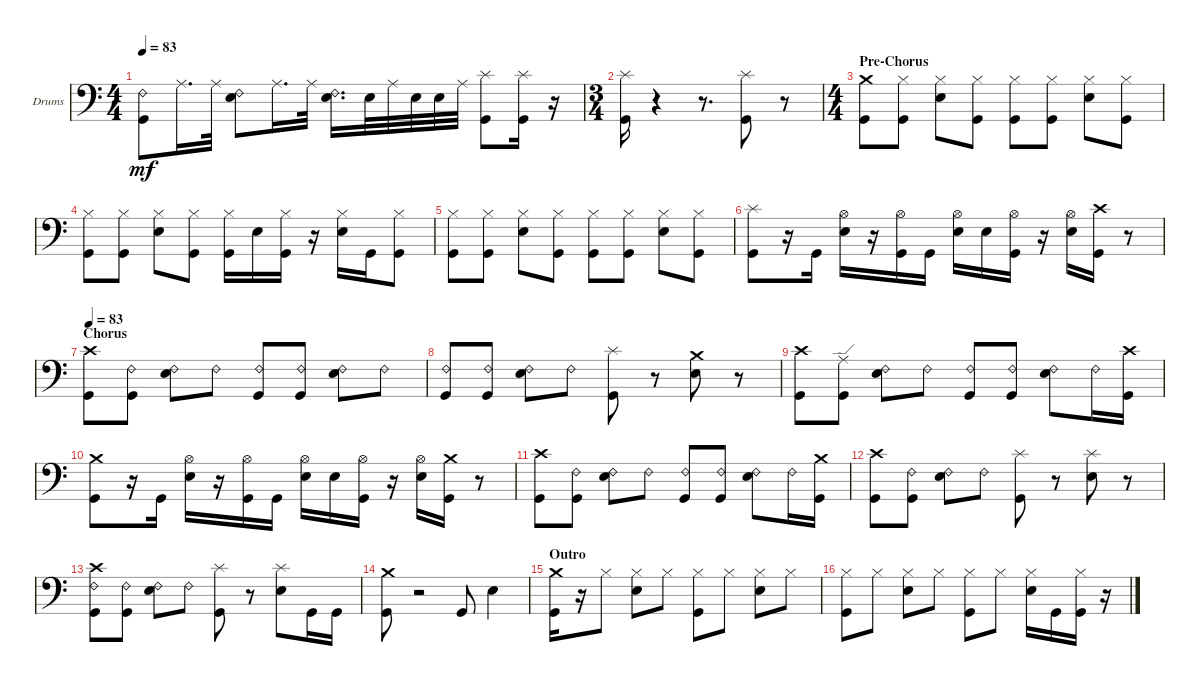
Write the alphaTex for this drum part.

\bracketExtendMode groupsimilarinstruments
\firstSystemTrackNameOrientation horizontal
\otherSystemsTrackNameOrientation horizontal
\track ("Drums" "Drums") {instrument percussion}
\staff {score}
\articulation defaults
\ts (4 4)
\tempo 83
\clef f4
\scale
0.262911
\ks c
("Kick (hit)" "Ride (bell) 2").8{dy mf} "Ride (middle)".16{d} "Ride (middle)".32 ("Snare (hit) 2" "Ride (bell) 2").8 "Ride (middle)".16{d} "Ride (middle)".32 ("Ride (bell) 2" "Snare (hit) 2").16{d} "Snare (hit) 2".32 "Ride (middle)".32 "Snare (hit) 2".32 "Snare (hit) 2".32 "Ride (middle)".32 ("Kick (hit)" "Splash (hit)").8 ("Kick (hit)" "Splash (hit)").16 r.16 |
\ts (3 4)
\scale
0.474178 ("Kick (hit)" "Splash (hit)").16 r.4 r.8{d} ("Kick (hit)" "Splash (hit)").8 r.8 |
\ts (4 4)
\section ("" "Pre-Chorus")
\scale
0.474178 ("Kick (hit)" "Crash medium (hit)").8 ("Hi-Hat (closed)" "Kick (hit)").8 ("Hi-Hat (closed)" "Snare (hit) 2").8 ("Hi-Hat (closed)" "Kick (hit)").8 ("Hi-Hat (closed)" "Kick (hit)").8 ("Hi-Hat (closed)" "Kick (hit)").8 ("Hi-Hat (closed)" "Snare (hit) 2").8 ("Hi-Hat (closed)" "Kick (hit)").8 |
\scale
0.262911 ("Hi-Hat (closed)" "Kick (hit)").8 ("Hi-Hat (closed)" "Kick (hit)").8 ("Hi-Hat (closed)" "Snare (hit) 2").8 ("Hi-Hat (closed)" "Kick (hit)").8 ("Hi-Hat (closed)" "Kick (hit)").16 "Snare (hit) 2".16 ("Kick (hit)" "Hi-Hat (closed)").16 r.16 ("Hi-Hat (closed)" "Snare (hit) 2").16 "Kick (hit)".16 ("Kick (hit)" "Hi-Hat (closed)").8 |
\scale
0.262911 ("Hi-Hat (closed)" "Kick (hit)").8 ("Hi-Hat (closed)" "Kick (hit)").8 ("Hi-Hat (closed)" "Snare (hit) 2").8 ("Hi-Hat (closed)" "Kick (hit)").8 ("Hi-Hat (closed)" "Kick (hit)").8 ("Hi-Hat (closed)" "Kick (hit)").8 ("Hi-Hat (closed)" "Snare (hit) 2").8 ("Hi-Hat (closed)" "Kick (hit)").8 |
\scale
0.333333 ("Kick (hit)" "Splash (hit)").8 r.16 "Kick (hit)".16 ("Snare (hit) 2" "Hi-Hat (open)").16 r.16 ("Kick (hit)" "Hi-Hat (open)").16 "Kick (hit)".16 ("Snare (hit) 2" "Hi-Hat (open)").16 "Snare (hit) 2".16 ("Kick (hit)" "Hi-Hat (open)").16 r.16 ("Snare (hit) 2" "Hi-Hat (open)").16 ("Kick (hit)" "Crash high (hit)").16 r.8 |
\section ("" "Chorus")
\tempo 83
\scale
0.333333 ("Kick (hit)" "Crash high (hit)").8 ("Kick (hit)" "Ride (bell) 2").8 ("Ride (bell) 2" "Snare (hit) 2").8 "Ride (bell) 2".8 ("Ride (bell) 2" "Kick (hit)").8 ("Ride (bell) 2" "Kick (hit)").8 ("Ride (bell) 2" "Snare (hit) 2").8 "Ride (bell) 2".8 |
\scale
0.333333 ("Kick (hit)" "Ride (bell) 2").8 ("Ride (bell) 2" "Kick (hit)").8 ("Ride (bell) 2" "Snare (hit) 2").8 "Ride (bell) 2".8 ("Kick (hit)" "Splash (hit)").8 r.8 ("Snare (hit) 2" "Crash medium (hit)").8 r.8 |
\scale
0.333333 ("Kick (hit)" "Crash high (hit)").8 ("Kick (hit)" "Ride (edge)").8 ("Snare (hit) 2" "Ride (bell) 2").8 "Ride (bell) 2".8 ("Ride (bell) 2" "Kick (hit)").8 ("Ride (bell) 2" "Kick (hit)").8 ("Ride (bell) 2" "Snare (hit) 2").8 "Ride (bell) 2".16 ("Crash high (hit)" "Kick (hit)").16 |
\scale
0.333333 ("Kick (hit)" "Crash medium (hit)").8 r.16 "Kick (hit)".16 ("Snare (hit) 2" "Hi-Hat (open)").16 r.16 ("Kick (hit)" "Hi-Hat (open)").16 "Kick (hit)".16 ("Snare (hit) 2" "Hi-Hat (open)").16 "Snare (hit) 2".16 ("Kick (hit)" "Hi-Hat (open)").16 r.16 ("Snare (hit) 2" "Hi-Hat (open)").16 ("Kick (hit)" "Crash medium (hit)").16 r.8 |
\scale
0.333333 ("Kick (hit)" "Crash high (hit)").8 ("Kick (hit)" "Ride (bell) 2").8 ("Ride (bell) 2" "Snare (hit) 2").8 "Ride (bell) 2".8 ("Ride (bell) 2" "Kick (hit)").8 ("Ride (bell) 2" "Kick (hit)").8 ("Ride (bell) 2" "Snare (hit) 2").8 "Ride (bell) 2".16 ("Crash medium (hit)" "Kick (hit)").16 |
\scale
0.333333 ("Kick (hit)" "Crash high (hit)").8 ("Kick (hit)" "Ride (bell) 2").8 ("Ride (bell) 2" "Snare (hit) 2").8 "Ride (bell) 2".8 ("Splash (hit)" "Kick (hit)").8 r.8 ("Snare (hit) 2" "Splash (hit)").8 r.8 |
\scale
0.333333 ("Kick (hit)" "Crash high (hit)" "Ride (bell) 2").8 ("Kick (hit)" "Ride (bell) 2").8 ("Ride (bell) 2" "Snare (hit) 2").8 "Ride (bell) 2".8 ("Kick (hit)" "Splash (hit)").8 r.8 ("Snare (hit) 2" "Splash (hit)").8 "Kick (hit)".16 "Kick (hit)".16 |
\scale
0.333333 ("Kick (hit)" "Crash medium (hit)").8 r.2 "Kick (hit)".8 "Snare (hit) 2".4 |
\section ("" "Outro")
\scale
0.333333 ("Kick (hit)" "Crash medium (hit)").16 r.16 "Hi-Hat (closed)".8 ("Snare (hit) 2" "Hi-Hat (closed)").8 "Hi-Hat (closed)".8 ("Hi-Hat (closed)" "Kick (hit)").8 "Hi-Hat (closed)".8 ("Hi-Hat (closed)" "Snare (hit) 2").8 "Hi-Hat (closed)".8 |
\scale
0.333333 ("Hi-Hat (closed)" "Kick (hit)").8 "Hi-Hat (closed)".8 ("Hi-Hat (closed)" "Snare (hit) 2").8 "Hi-Hat (closed)".8 ("Hi-Hat (closed)" "Kick (hit)").8 "Hi-Hat (closed)".8 ("Hi-Hat (closed)" "Snare (hit) 2").16 "Kick (hit)".16 ("Kick (hit)" "Hi-Hat (closed)").16 r.16
